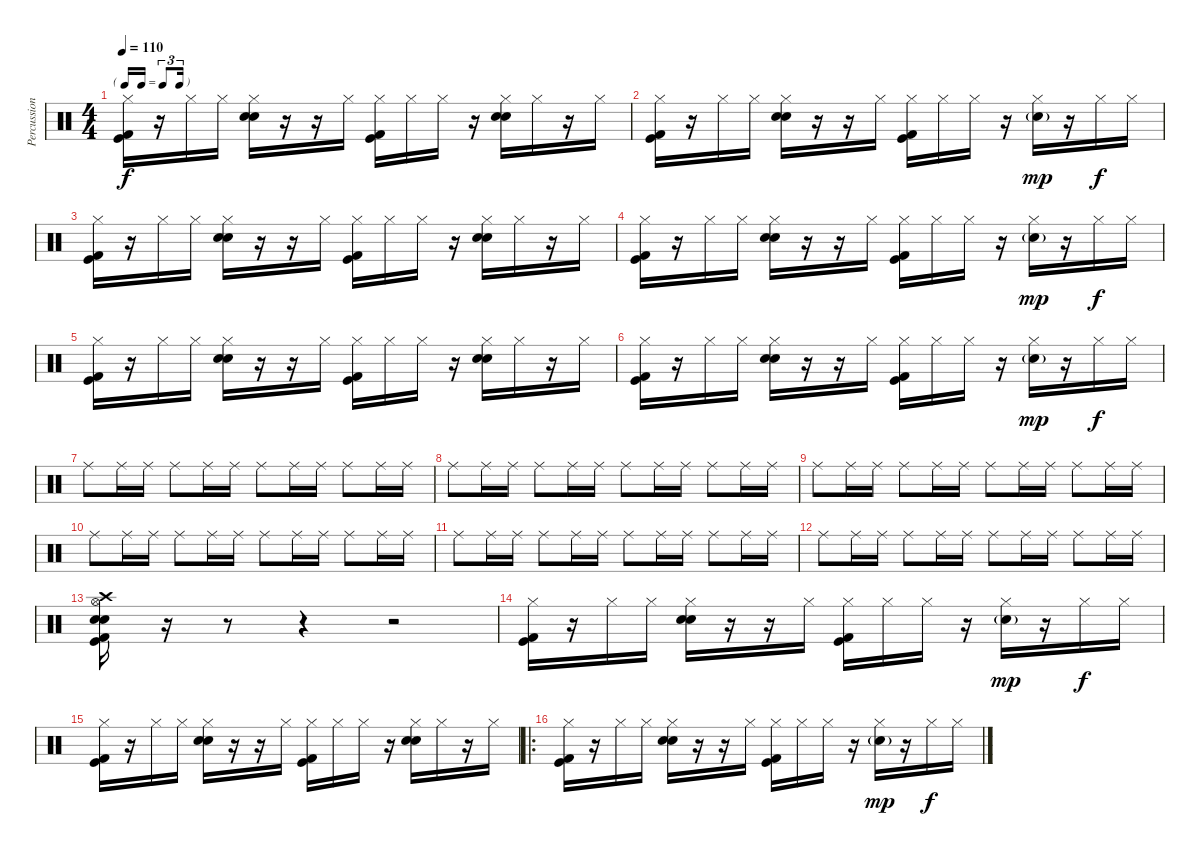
\track ("Percussion" "Percussion") {instrument percussion}
\staff {score}
\articulation defaults
\ts (4 4)
\tf triplet16th
\tempo 110
\clef neutral
\ks c
("Kick (hit) 2" "Kick (hit)" "Hi-Hat (closed)").16{dy f} r.16 "Hi-Hat (closed)".16 "Hi-Hat (closed)".16 ("Electric Snare (hit)" "Snare (hit) 2" "Hi-Hat (closed)").16 r.16 r.16 "Hi-Hat (closed)".16 ("Kick (hit) 2" "Kick (hit)" "Hi-Hat (closed)").16 "Hi-Hat (closed)".16 "Hi-Hat (closed)".16 r.16 ("Electric Snare (hit)" "Snare (hit) 2" "Hi-Hat (closed)").16 "Hi-Hat (closed)".16 r.16 "Hi-Hat (closed)".16 |
("Kick (hit) 2" "Kick (hit)" "Hi-Hat (closed)").16 r.16 "Hi-Hat (closed)".16 "Hi-Hat (closed)".16 ("Electric Snare (hit)" "Snare (hit) 2" "Hi-Hat (closed)").16 r.16 r.16 "Hi-Hat (closed)".16 ("Kick (hit) 2" "Kick (hit)" "Hi-Hat (closed)").16 "Hi-Hat (closed)".16 "Hi-Hat (closed)".16 r.16 ("Hi-Hat (closed)" "Snare (hit) 2"{g}).16{dy mp} r.16 "Hi-Hat (closed)".16{dy f} "Hi-Hat (closed)".16 |
("Kick (hit) 2" "Kick (hit)" "Hi-Hat (closed)").16 r.16 "Hi-Hat (closed)".16 "Hi-Hat (closed)".16 ("Electric Snare (hit)" "Snare (hit) 2" "Hi-Hat (closed)").16 r.16 r.16 "Hi-Hat (closed)".16 ("Kick (hit) 2" "Kick (hit)" "Hi-Hat (closed)").16 "Hi-Hat (closed)".16 "Hi-Hat (closed)".16 r.16 ("Electric Snare (hit)" "Snare (hit) 2" "Hi-Hat (closed)").16 "Hi-Hat (closed)".16 r.16 "Hi-Hat (closed)".16 |
("Kick (hit) 2" "Kick (hit)" "Hi-Hat (closed)").16 r.16 "Hi-Hat (closed)".16 "Hi-Hat (closed)".16 ("Electric Snare (hit)" "Snare (hit) 2" "Hi-Hat (closed)").16 r.16 r.16 "Hi-Hat (closed)".16 ("Kick (hit) 2" "Kick (hit)" "Hi-Hat (closed)").16 "Hi-Hat (closed)".16 "Hi-Hat (closed)".16 r.16 ("Hi-Hat (closed)" "Snare (hit) 2"{g}).16{dy mp} r.16 "Hi-Hat (closed)".16{dy f} "Hi-Hat (closed)".16 |
("Kick (hit) 2" "Kick (hit)" "Hi-Hat (closed)").16 r.16 "Hi-Hat (closed)".16 "Hi-Hat (closed)".16 ("Electric Snare (hit)" "Snare (hit) 2" "Hi-Hat (closed)").16 r.16 r.16 "Hi-Hat (closed)".16 ("Kick (hit) 2" "Kick (hit)" "Hi-Hat (closed)").16 "Hi-Hat (closed)".16 "Hi-Hat (closed)".16 r.16 ("Electric Snare (hit)" "Snare (hit) 2" "Hi-Hat (closed)").16 "Hi-Hat (closed)".16 r.16 "Hi-Hat (closed)".16 |
("Kick (hit) 2" "Kick (hit)" "Hi-Hat (closed)").16 r.16 "Hi-Hat (closed)".16 "Hi-Hat (closed)".16 ("Electric Snare (hit)" "Snare (hit) 2" "Hi-Hat (closed)").16 r.16 r.16 "Hi-Hat (closed)".16 ("Kick (hit) 2" "Kick (hit)" "Hi-Hat (closed)").16 "Hi-Hat (closed)".16 "Hi-Hat (closed)".16 r.16 ("Hi-Hat (closed)" "Snare (hit) 2"{g}).16{dy mp} r.16 "Hi-Hat (closed)".16{dy f} "Hi-Hat (closed)".16 |
"Ride (middle)".8 "Ride (middle)".16 "Ride (middle)".16 "Ride (middle)".8 "Ride (middle)".16 "Ride (middle)".16 "Ride (middle)".8 "Ride (middle)".16 "Ride (middle)".16 "Ride (middle)".8 "Ride (middle)".16 "Ride (middle)".16 |
"Ride (middle)".8 "Ride (middle)".16 "Ride (middle)".16 "Ride (middle)".8 "Ride (middle)".16 "Ride (middle)".16 "Ride (middle)".8 "Ride (middle)".16 "Ride (middle)".16 "Ride (middle)".8 "Ride (middle)".16 "Ride (middle)".16 |
"Ride (middle)".8 "Ride (middle)".16 "Ride (middle)".16 "Ride (middle)".8 "Ride (middle)".16 "Ride (middle)".16 "Ride (middle)".8 "Ride (middle)".16 "Ride (middle)".16 "Ride (middle)".8 "Ride (middle)".16 "Ride (middle)".16 |
"Ride (middle)".8 "Ride (middle)".16 "Ride (middle)".16 "Ride (middle)".8 "Ride (middle)".16 "Ride (middle)".16 "Ride (middle)".8 "Ride (middle)".16 "Ride (middle)".16 "Ride (middle)".8 "Ride (middle)".16 "Ride (middle)".16 |
"Ride (middle)".8 "Ride (middle)".16 "Ride (middle)".16 "Ride (middle)".8 "Ride (middle)".16 "Ride (middle)".16 "Ride (middle)".8 "Ride (middle)".16 "Ride (middle)".16 "Ride (middle)".8 "Ride (middle)".16 "Ride (middle)".16 |
"Ride (middle)".8 "Ride (middle)".16 "Ride (middle)".16 "Ride (middle)".8 "Ride (middle)".16 "Ride (middle)".16 "Ride (middle)".8 "Ride (middle)".16 "Ride (middle)".16 "Ride (middle)".8 "Ride (middle)".16 "Ride (middle)".16 |
("Kick (hit) 2" "Kick (hit)" "Snare (hit) 2" "Electric Snare (hit)" "Hi-Hat (open)" "Crash high (hit)").16 r.16 r.8 r.4 r.2 |
("Kick (hit) 2" "Kick (hit)" "Hi-Hat (closed)").16 r.16 "Hi-Hat (closed)".16 "Hi-Hat (closed)".16 ("Electric Snare (hit)" "Snare (hit) 2" "Hi-Hat (closed)").16 r.16 r.16 "Hi-Hat (closed)".16 ("Kick (hit) 2" "Kick (hit)" "Hi-Hat (closed)").16 "Hi-Hat (closed)".16 "Hi-Hat (closed)".16 r.16 ("Hi-Hat (closed)" "Snare (hit) 2"{g}).16{dy mp} r.16 "Hi-Hat (closed)".16{dy f} "Hi-Hat (closed)".16 |
("Kick (hit) 2" "Kick (hit)" "Hi-Hat (closed)").16 r.16 "Hi-Hat (closed)".16 "Hi-Hat (closed)".16 ("Electric Snare (hit)" "Snare (hit) 2" "Hi-Hat (closed)").16 r.16 r.16 "Hi-Hat (closed)".16 ("Kick (hit) 2" "Kick (hit)" "Hi-Hat (closed)").16 "Hi-Hat (closed)".16 "Hi-Hat (closed)".16 r.16 ("Electric Snare (hit)" "Snare (hit) 2" "Hi-Hat (closed)").16 "Hi-Hat (closed)".16 r.16 "Hi-Hat (closed)".16 |
\ro
("Kick (hit) 2" "Kick (hit)" "Hi-Hat (closed)").16 r.16 "Hi-Hat (closed)".16 "Hi-Hat (closed)".16 ("Electric Snare (hit)" "Snare (hit) 2" "Hi-Hat (closed)").16 r.16 r.16 "Hi-Hat (closed)".16 ("Kick (hit) 2" "Kick (hit)" "Hi-Hat (closed)").16 "Hi-Hat (closed)".16 "Hi-Hat (closed)".16 r.16 ("Hi-Hat (closed)" "Snare (hit) 2"{g}).16{dy mp} r.16 "Hi-Hat (closed)".16{dy f} "Hi-Hat (closed)".16
